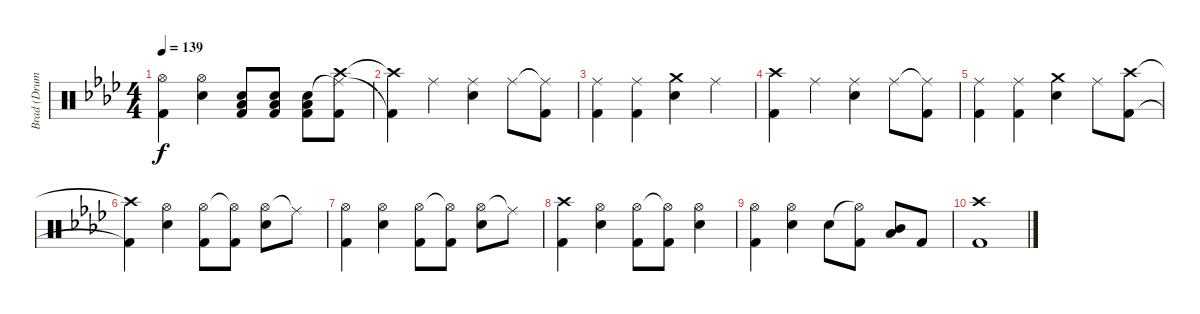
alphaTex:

\track ("Brad (Drums)" "Brad (Drum") {instrument percussion}
\staff {score}
\articulation defaults
\ts (4 4)
\tempo 139
\clef neutral
\ks ab
("Hi-Hat (open)" "Kick (hit) 2").4{dy f} ("Hi-Hat (open)" "Snare (hit) 2").4 ("Low Tom (hit)" "Snare (hit) 2" "Kick (hit) 2").8 ("Low Tom (hit)" "Snare (hit) 2" "Kick (hit) 2").8 ("Low Tom (hit)" "Snare (hit) 2" "Kick (hit) 2").8 ("Crash high (hit)" "Ride (middle)"{t} "Kick (hit) 2").8 |
("Crash high (hit)"{t} "Kick (hit) 2"{t}).4 "Ride (middle)".4 ("Ride (middle)" "Snare (hit) 2").4 "Ride (middle)".8 ("Ride (middle)"{t} "Kick (hit) 2").8 |
("Ride (middle)" "Kick (hit) 2").4 ("Ride (middle)" "Kick (hit) 2").4 ("Crash medium (hit)" "Snare (hit) 2").4 "Ride (middle)".4 |
("Crash high (hit)" "Kick (hit) 2").4 "Ride (middle)".4 ("Ride (middle)" "Snare (hit) 2").4 "Ride (middle)".8 ("Ride (middle)"{t} "Kick (hit) 2").8 |
("Ride (middle)" "Kick (hit) 2").4 ("Ride (middle)" "Kick (hit) 2").4 ("Crash medium (hit)" "Snare (hit) 2").4 "Ride (middle)".8 ("Crash high (hit)" "Kick (hit) 2").8 |
("Crash high (hit)"{t} "Kick (hit) 2"{t}).4 ("Hi-Hat (open)" "Snare (hit) 2").4 ("Hi-Hat (open)" "Kick (hit) 2").8 ("Hi-Hat (open)"{t} "Kick (hit) 2").8 ("Hi-Hat (open)" "Snare (hit) 2").8 "Ride (middle)"{t}.8 |
("Hi-Hat (open)" "Kick (hit) 2").4 ("Hi-Hat (open)" "Snare (hit) 2").4 ("Hi-Hat (open)" "Kick (hit) 2").8 ("Hi-Hat (open)"{t} "Kick (hit) 2").8 ("Hi-Hat (open)" "Snare (hit) 2").8 "Ride (middle)"{t}.8 |
("Crash high (hit)" "Kick (hit) 2").4 ("Hi-Hat (open)" "Snare (hit) 2").4 ("Hi-Hat (open)" "Kick (hit) 2").8 ("Hi-Hat (open)"{t} "Kick (hit) 2").8 ("Hi-Hat (open)" "Snare (hit) 2").4 |
("Hi-Hat (open)" "Kick (hit) 2").4 ("Hi-Hat (open)" "Snare (hit) 2").4 "Snare (hit) 2".8 ("Hi-Hat (open)"{t} "Kick (hit) 2").8 ("Mid Tom (hit)" "Low Tom (hit)").8 "Kick (hit) 2".8 |
("Crash high (hit)" "Kick (hit) 2").1
